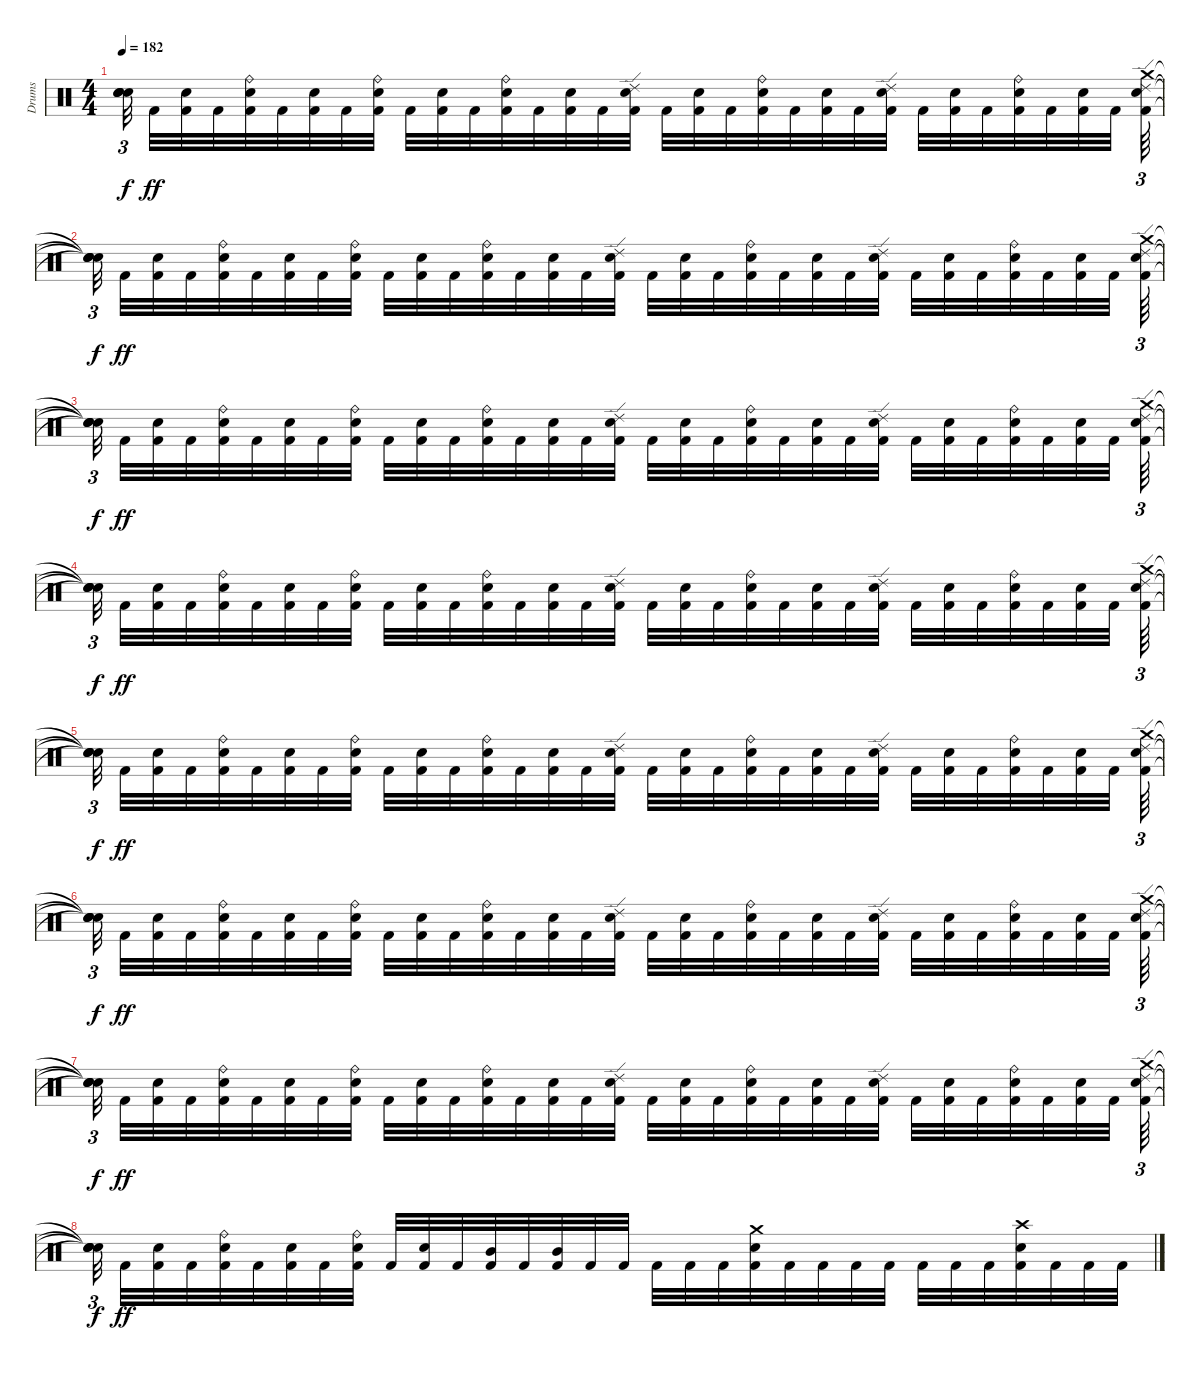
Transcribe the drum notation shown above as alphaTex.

\track ("Drums" "Drums") {instrument percussion}
\staff {score}
\articulation defaults
\ts (4 4)
\tempo 182
\clef neutral
\ks c
("Snare (hit)"{t} "Snare (hit)"{t} "Snare (hit)"{t} "Snare (hit)"{t}).32{tu (3 2) dy f beam splitsecondary} "Kick (hit) 2".32{dy ff} ("Kick (hit) 2" "Snare (hit) 2").32 "Kick (hit) 2".32 ("Kick (hit) 2" "Snare (hit) 2" "Ride (bell)").32 "Kick (hit) 2".32 ("Kick (hit) 2" "Snare (hit) 2").32 "Kick (hit) 2".32 ("Kick (hit) 2" "Snare (hit) 2" "Ride (bell)").32 "Kick (hit) 2".32 ("Kick (hit) 2" "Snare (hit) 2").32 "Kick (hit) 2".32 ("Kick (hit) 2" "Snare (hit) 2" "Ride (bell)").32 "Kick (hit) 2".32 ("Kick (hit) 2" "Snare (hit) 2").32 "Kick (hit) 2".32 ("Kick (hit) 2" "Snare (hit) 2" "Ride (edge) 2").32 "Kick (hit) 2".32 ("Kick (hit) 2" "Snare (hit) 2").32 "Kick (hit) 2".32 ("Kick (hit) 2" "Snare (hit) 2" "Ride (bell)").32 "Kick (hit) 2".32 ("Kick (hit) 2" "Snare (hit) 2").32 "Kick (hit) 2".32 ("Kick (hit) 2" "Snare (hit) 2" "Ride (edge) 2").32 "Kick (hit) 2".32 ("Kick (hit) 2" "Snare (hit) 2").32 "Kick (hit) 2".32 ("Kick (hit) 2" "Snare (hit) 2" "Ride (bell)").32 "Kick (hit) 2".32 ("Kick (hit) 2" "Snare (hit) 2").32 "Kick (hit) 2".32{beam splitsecondary} ("Kick (hit) 2" "Snare (hit) 2" "Ride (edge) 2" "Crash medium (hit)").64{tu (3 2)} |
("Snare (hit)"{t} "Snare (hit)"{t} "Snare (hit)"{t} "Snare (hit)"{t}).32{tu (3 2) dy f beam splitsecondary} "Kick (hit) 2".32{dy ff} ("Kick (hit) 2" "Snare (hit) 2").32 "Kick (hit) 2".32 ("Kick (hit) 2" "Snare (hit) 2" "Ride (bell)").32 "Kick (hit) 2".32 ("Kick (hit) 2" "Snare (hit) 2").32 "Kick (hit) 2".32 ("Kick (hit) 2" "Snare (hit) 2" "Ride (bell)").32 "Kick (hit) 2".32 ("Kick (hit) 2" "Snare (hit) 2").32 "Kick (hit) 2".32 ("Kick (hit) 2" "Snare (hit) 2" "Ride (bell)").32 "Kick (hit) 2".32 ("Kick (hit) 2" "Snare (hit) 2").32 "Kick (hit) 2".32 ("Kick (hit) 2" "Snare (hit) 2" "Ride (edge) 2").32 "Kick (hit) 2".32 ("Kick (hit) 2" "Snare (hit) 2").32 "Kick (hit) 2".32 ("Kick (hit) 2" "Snare (hit) 2" "Ride (bell)").32 "Kick (hit) 2".32 ("Kick (hit) 2" "Snare (hit) 2").32 "Kick (hit) 2".32 ("Kick (hit) 2" "Snare (hit) 2" "Ride (edge) 2").32 "Kick (hit) 2".32 ("Kick (hit) 2" "Snare (hit) 2").32 "Kick (hit) 2".32 ("Kick (hit) 2" "Snare (hit) 2" "Ride (bell)").32 "Kick (hit) 2".32 ("Kick (hit) 2" "Snare (hit) 2").32 "Kick (hit) 2".32{beam splitsecondary} ("Kick (hit) 2" "Snare (hit) 2" "Ride (edge) 2" "Crash medium (hit)").64{tu (3 2)} |
("Snare (hit)"{t} "Snare (hit)"{t} "Snare (hit)"{t} "Snare (hit)"{t}).32{tu (3 2) dy f beam splitsecondary} "Kick (hit) 2".32{dy ff} ("Kick (hit) 2" "Snare (hit) 2").32 "Kick (hit) 2".32 ("Kick (hit) 2" "Snare (hit) 2" "Ride (bell)").32 "Kick (hit) 2".32 ("Kick (hit) 2" "Snare (hit) 2").32 "Kick (hit) 2".32 ("Kick (hit) 2" "Snare (hit) 2" "Ride (bell)").32 "Kick (hit) 2".32 ("Kick (hit) 2" "Snare (hit) 2").32 "Kick (hit) 2".32 ("Kick (hit) 2" "Snare (hit) 2" "Ride (bell)").32 "Kick (hit) 2".32 ("Kick (hit) 2" "Snare (hit) 2").32 "Kick (hit) 2".32 ("Kick (hit) 2" "Snare (hit) 2" "Ride (edge) 2").32 "Kick (hit) 2".32 ("Kick (hit) 2" "Snare (hit) 2").32 "Kick (hit) 2".32 ("Kick (hit) 2" "Snare (hit) 2" "Ride (bell)").32 "Kick (hit) 2".32 ("Kick (hit) 2" "Snare (hit) 2").32 "Kick (hit) 2".32 ("Kick (hit) 2" "Snare (hit) 2" "Ride (edge) 2").32 "Kick (hit) 2".32 ("Kick (hit) 2" "Snare (hit) 2").32 "Kick (hit) 2".32 ("Kick (hit) 2" "Snare (hit) 2" "Ride (bell)").32 "Kick (hit) 2".32 ("Kick (hit) 2" "Snare (hit) 2").32 "Kick (hit) 2".32{beam splitsecondary} ("Kick (hit) 2" "Snare (hit) 2" "Ride (edge) 2" "Crash medium (hit)").64{tu (3 2)} |
("Snare (hit)"{t} "Snare (hit)"{t} "Snare (hit)"{t} "Snare (hit)"{t}).32{tu (3 2) dy f beam splitsecondary} "Kick (hit) 2".32{dy ff} ("Kick (hit) 2" "Snare (hit) 2").32 "Kick (hit) 2".32 ("Kick (hit) 2" "Snare (hit) 2" "Ride (bell)").32 "Kick (hit) 2".32 ("Kick (hit) 2" "Snare (hit) 2").32 "Kick (hit) 2".32 ("Kick (hit) 2" "Snare (hit) 2" "Ride (bell)").32 "Kick (hit) 2".32 ("Kick (hit) 2" "Snare (hit) 2").32 "Kick (hit) 2".32 ("Kick (hit) 2" "Snare (hit) 2" "Ride (bell)").32 "Kick (hit) 2".32 ("Kick (hit) 2" "Snare (hit) 2").32 "Kick (hit) 2".32 ("Kick (hit) 2" "Snare (hit) 2" "Ride (edge) 2").32 "Kick (hit) 2".32 ("Kick (hit) 2" "Snare (hit) 2").32 "Kick (hit) 2".32 ("Kick (hit) 2" "Snare (hit) 2" "Ride (bell)").32 "Kick (hit) 2".32 ("Kick (hit) 2" "Snare (hit) 2").32 "Kick (hit) 2".32 ("Kick (hit) 2" "Snare (hit) 2" "Ride (edge) 2").32 "Kick (hit) 2".32 ("Kick (hit) 2" "Snare (hit) 2").32 "Kick (hit) 2".32 ("Kick (hit) 2" "Snare (hit) 2" "Ride (bell)").32 "Kick (hit) 2".32 ("Kick (hit) 2" "Snare (hit) 2").32 "Kick (hit) 2".32{beam splitsecondary} ("Kick (hit) 2" "Snare (hit) 2" "Ride (edge) 2" "Crash medium (hit)").64{tu (3 2)} |
("Snare (hit)"{t} "Snare (hit)"{t} "Snare (hit)"{t} "Snare (hit)"{t}).32{tu (3 2) dy f beam splitsecondary} "Kick (hit) 2".32{dy ff} ("Kick (hit) 2" "Snare (hit) 2").32 "Kick (hit) 2".32 ("Kick (hit) 2" "Snare (hit) 2" "Ride (bell)").32 "Kick (hit) 2".32 ("Kick (hit) 2" "Snare (hit) 2").32 "Kick (hit) 2".32 ("Kick (hit) 2" "Snare (hit) 2" "Ride (bell)").32 "Kick (hit) 2".32 ("Kick (hit) 2" "Snare (hit) 2").32 "Kick (hit) 2".32 ("Kick (hit) 2" "Snare (hit) 2" "Ride (bell)").32 "Kick (hit) 2".32 ("Kick (hit) 2" "Snare (hit) 2").32 "Kick (hit) 2".32 ("Kick (hit) 2" "Snare (hit) 2" "Ride (edge) 2").32 "Kick (hit) 2".32 ("Kick (hit) 2" "Snare (hit) 2").32 "Kick (hit) 2".32 ("Kick (hit) 2" "Snare (hit) 2" "Ride (bell)").32 "Kick (hit) 2".32 ("Kick (hit) 2" "Snare (hit) 2").32 "Kick (hit) 2".32 ("Kick (hit) 2" "Snare (hit) 2" "Ride (edge) 2").32 "Kick (hit) 2".32 ("Kick (hit) 2" "Snare (hit) 2").32 "Kick (hit) 2".32 ("Kick (hit) 2" "Snare (hit) 2" "Ride (bell)").32 "Kick (hit) 2".32 ("Kick (hit) 2" "Snare (hit) 2").32 "Kick (hit) 2".32{beam splitsecondary} ("Kick (hit) 2" "Snare (hit) 2" "Ride (edge) 2" "Crash medium (hit)").64{tu (3 2)} |
("Snare (hit)"{t} "Snare (hit)"{t} "Snare (hit)"{t} "Snare (hit)"{t}).32{tu (3 2) dy f beam splitsecondary} "Kick (hit) 2".32{dy ff} ("Kick (hit) 2" "Snare (hit) 2").32 "Kick (hit) 2".32 ("Kick (hit) 2" "Snare (hit) 2" "Ride (bell)").32 "Kick (hit) 2".32 ("Kick (hit) 2" "Snare (hit) 2").32 "Kick (hit) 2".32 ("Kick (hit) 2" "Snare (hit) 2" "Ride (bell)").32 "Kick (hit) 2".32 ("Kick (hit) 2" "Snare (hit) 2").32 "Kick (hit) 2".32 ("Kick (hit) 2" "Snare (hit) 2" "Ride (bell)").32 "Kick (hit) 2".32 ("Kick (hit) 2" "Snare (hit) 2").32 "Kick (hit) 2".32 ("Kick (hit) 2" "Snare (hit) 2" "Ride (edge) 2").32 "Kick (hit) 2".32 ("Kick (hit) 2" "Snare (hit) 2").32 "Kick (hit) 2".32 ("Kick (hit) 2" "Snare (hit) 2" "Ride (bell)").32 "Kick (hit) 2".32 ("Kick (hit) 2" "Snare (hit) 2").32 "Kick (hit) 2".32 ("Kick (hit) 2" "Snare (hit) 2" "Ride (edge) 2").32 "Kick (hit) 2".32 ("Kick (hit) 2" "Snare (hit) 2").32 "Kick (hit) 2".32 ("Kick (hit) 2" "Snare (hit) 2" "Ride (bell)").32 "Kick (hit) 2".32 ("Kick (hit) 2" "Snare (hit) 2").32 "Kick (hit) 2".32{beam splitsecondary} ("Kick (hit) 2" "Snare (hit) 2" "Ride (edge) 2" "Crash medium (hit)").64{tu (3 2)} |
("Snare (hit)"{t} "Snare (hit)"{t} "Snare (hit)"{t} "Snare (hit)"{t}).32{tu (3 2) dy f beam splitsecondary} "Kick (hit) 2".32{dy ff} ("Kick (hit) 2" "Snare (hit) 2").32 "Kick (hit) 2".32 ("Kick (hit) 2" "Snare (hit) 2" "Ride (bell)").32 "Kick (hit) 2".32 ("Kick (hit) 2" "Snare (hit) 2").32 "Kick (hit) 2".32 ("Kick (hit) 2" "Snare (hit) 2" "Ride (bell)").32 "Kick (hit) 2".32 ("Kick (hit) 2" "Snare (hit) 2").32 "Kick (hit) 2".32 ("Kick (hit) 2" "Snare (hit) 2" "Ride (bell)").32 "Kick (hit) 2".32 ("Kick (hit) 2" "Snare (hit) 2").32 "Kick (hit) 2".32 ("Kick (hit) 2" "Snare (hit) 2" "Ride (edge) 2").32 "Kick (hit) 2".32 ("Kick (hit) 2" "Snare (hit) 2").32 "Kick (hit) 2".32 ("Kick (hit) 2" "Snare (hit) 2" "Ride (bell)").32 "Kick (hit) 2".32 ("Kick (hit) 2" "Snare (hit) 2").32 "Kick (hit) 2".32 ("Kick (hit) 2" "Snare (hit) 2" "Ride (edge) 2").32 "Kick (hit) 2".32 ("Kick (hit) 2" "Snare (hit) 2").32 "Kick (hit) 2".32 ("Kick (hit) 2" "Snare (hit) 2" "Ride (bell)").32 "Kick (hit) 2".32 ("Kick (hit) 2" "Snare (hit) 2").32 "Kick (hit) 2".32{beam splitsecondary} ("Kick (hit) 2" "Snare (hit) 2" "Ride (edge) 2" "Crash medium (hit)").64{tu (3 2)} |
("Snare (hit)"{t} "Snare (hit)"{t} "Snare (hit)"{t} "Snare (hit)"{t}).32{tu (3 2) dy f beam splitsecondary} "Kick (hit) 2".32{dy ff} ("Kick (hit) 2" "Snare (hit) 2").32 "Kick (hit) 2".32 ("Kick (hit) 2" "Snare (hit) 2" "Ride (bell)").32 "Kick (hit) 2".32 ("Kick (hit) 2" "Snare (hit) 2").32 "Kick (hit) 2".32 ("Kick (hit) 2" "Snare (hit) 2" "Ride (bell)").32 "Kick (hit) 2".32 ("Kick (hit) 2" "Snare (hit) 2").32 "Kick (hit) 2".32 ("Kick (hit) 2" "Mid Tom (hit)").32 "Kick (hit) 2".32 ("Kick (hit) 2" "Mid Tom (hit)").32 "Kick (hit) 2".32 "Kick (hit) 2".32 "Kick (hit) 2".32 "Kick (hit) 2".32 "Kick (hit) 2".32 ("Crash medium (hit)" "Kick (hit) 2" "Snare (hit) 2").32 "Kick (hit) 2".32 "Kick (hit) 2".32 "Kick (hit) 2".32 "Kick (hit) 2".32 "Kick (hit) 2".32 "Kick (hit) 2".32 "Kick (hit) 2".32 ("Crash high (hit)" "Kick (hit) 2" "Snare (hit) 2").32 "Kick (hit) 2".32 "Kick (hit) 2".32 "Kick (hit) 2".32
